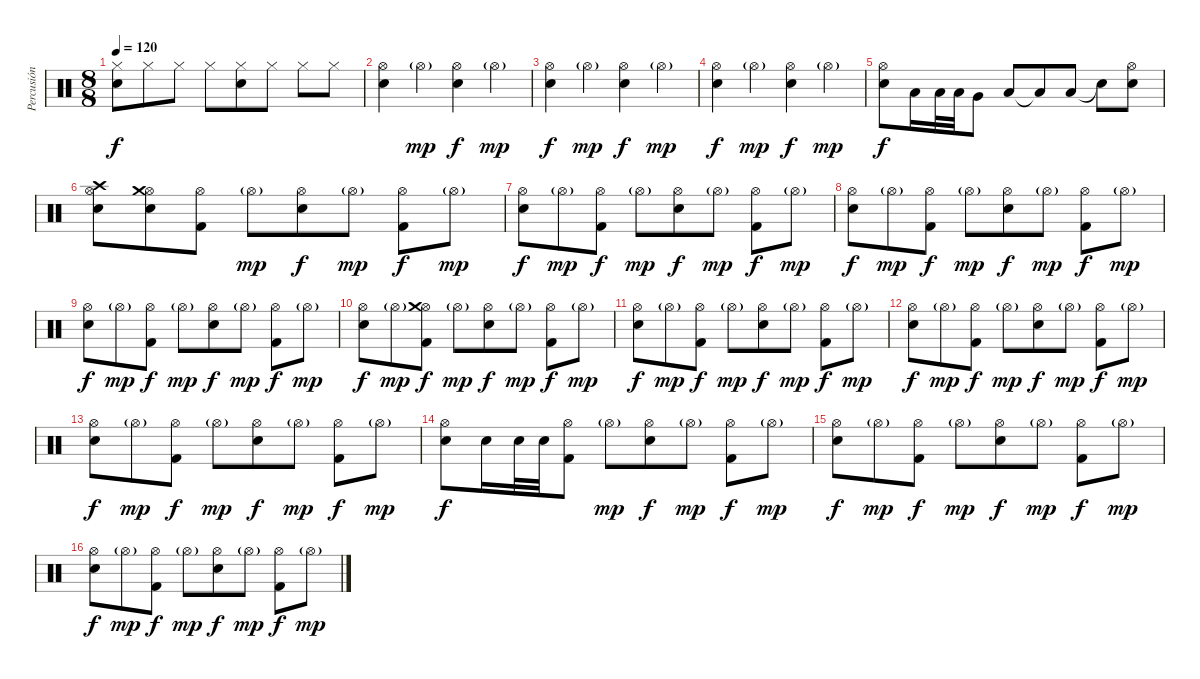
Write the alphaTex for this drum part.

\track ("Percusión" "Percusión") {instrument percussion}
\staff {score}
\articulation defaults
\ts (8 8)
\tempo 120
\clef neutral
\ks c
("Hi-Hat (closed)" "Snare (hit) 2").8{dy f} "Hi-Hat (closed)".8 "Hi-Hat (closed)".8 "Hi-Hat (closed)".8 ("Hi-Hat (closed)" "Snare (hit) 2").8 "Hi-Hat (closed)".8 "Hi-Hat (closed)".8 "Hi-Hat (closed)".8 |
("Hi-Hat (open)" "Snare (hit) 2").4 "Hi-Hat (open)"{g}.4{dy mp} ("Hi-Hat (open)" "Snare (hit) 2").4{dy f} "Hi-Hat (open)"{g}.4{dy mp} |
("Hi-Hat (open)" "Snare (hit) 2").4{dy f} "Hi-Hat (open)"{g}.4{dy mp} ("Hi-Hat (open)" "Snare (hit) 2").4{dy f} "Hi-Hat (open)"{g}.4{dy mp} |
("Hi-Hat (open)" "Snare (hit) 2").4{dy f} "Hi-Hat (open)"{g}.4{dy mp} ("Hi-Hat (open)" "Snare (hit) 2").4{dy f} "Hi-Hat (open)"{g}.4{dy mp} |
("Hi-Hat (open)" "Snare (hit) 2").8{dy f} "Low Tom (hit)".16 "Low Tom (hit)".32 "Low Tom (hit)".32 "Very Low Tom (hit)".8 "Low Tom (hit)".8 "Low Tom (hit)"{t}.8 "Low Tom (hit)".8 "Snare (hit)"{t}.8 ("Hi-Hat (open)" "Snare (hit) 2").8 |
("Hi-Hat (open)" "Crash high (hit)" "Snare (hit) 2").8 ("Hi-Hat (open)" "Crash medium (hit)" "Snare (hit) 2").8 ("Hi-Hat (open)" "Kick (hit) 2").8 "Hi-Hat (open)"{g}.8{dy mp} ("Hi-Hat (open)" "Snare (hit) 2").8{dy f} "Hi-Hat (open)"{g}.8{dy mp} ("Hi-Hat (open)" "Kick (hit) 2").8{dy f} "Hi-Hat (open)"{g}.8{dy mp} |
("Hi-Hat (open)" "Snare (hit) 2").8{dy f} "Hi-Hat (open)"{g}.8{dy mp} ("Hi-Hat (open)" "Kick (hit) 2").8{dy f} "Hi-Hat (open)"{g}.8{dy mp} ("Hi-Hat (open)" "Snare (hit) 2").8{dy f} "Hi-Hat (open)"{g}.8{dy mp} ("Hi-Hat (open)" "Kick (hit) 2").8{dy f} "Hi-Hat (open)"{g}.8{dy mp} |
("Hi-Hat (open)" "Snare (hit) 2").8{dy f} "Hi-Hat (open)"{g}.8{dy mp} ("Hi-Hat (open)" "Kick (hit) 2").8{dy f} "Hi-Hat (open)"{g}.8{dy mp} ("Hi-Hat (open)" "Snare (hit) 2").8{dy f} "Hi-Hat (open)"{g}.8{dy mp} ("Hi-Hat (open)" "Kick (hit) 2").8{dy f} "Hi-Hat (open)"{g}.8{dy mp} |
("Hi-Hat (open)" "Snare (hit) 2").8{dy f} "Hi-Hat (open)"{g}.8{dy mp} ("Hi-Hat (open)" "Kick (hit) 2").8{dy f} "Hi-Hat (open)"{g}.8{dy mp} ("Hi-Hat (open)" "Snare (hit) 2").8{dy f} "Hi-Hat (open)"{g}.8{dy mp} ("Hi-Hat (open)" "Kick (hit) 2").8{dy f} "Hi-Hat (open)"{g}.8{dy mp} |
("Hi-Hat (open)" "Snare (hit) 2").8{dy f} "Hi-Hat (open)"{g}.8{dy mp} ("Hi-Hat (open)" "Crash medium (hit)" "Kick (hit) 2").8{dy f} "Hi-Hat (open)"{g}.8{dy mp} ("Hi-Hat (open)" "Snare (hit) 2").8{dy f} "Hi-Hat (open)"{g}.8{dy mp} ("Hi-Hat (open)" "Kick (hit) 2").8{dy f} "Hi-Hat (open)"{g}.8{dy mp} |
("Hi-Hat (open)" "Snare (hit) 2").8{dy f} "Hi-Hat (open)"{g}.8{dy mp} ("Hi-Hat (open)" "Kick (hit) 2").8{dy f} "Hi-Hat (open)"{g}.8{dy mp} ("Hi-Hat (open)" "Snare (hit) 2").8{dy f} "Hi-Hat (open)"{g}.8{dy mp} ("Hi-Hat (open)" "Kick (hit) 2").8{dy f} "Hi-Hat (open)"{g}.8{dy mp} |
("Hi-Hat (open)" "Snare (hit) 2").8{dy f} "Hi-Hat (open)"{g}.8{dy mp} ("Hi-Hat (open)" "Kick (hit) 2").8{dy f} "Hi-Hat (open)"{g}.8{dy mp} ("Hi-Hat (open)" "Snare (hit) 2").8{dy f} "Hi-Hat (open)"{g}.8{dy mp} ("Hi-Hat (open)" "Kick (hit) 2").8{dy f} "Hi-Hat (open)"{g}.8{dy mp} |
("Hi-Hat (open)" "Snare (hit) 2").8{dy f} "Hi-Hat (open)"{g}.8{dy mp} ("Hi-Hat (open)" "Kick (hit) 2").8{dy f} "Hi-Hat (open)"{g}.8{dy mp} ("Hi-Hat (open)" "Snare (hit) 2").8{dy f} "Hi-Hat (open)"{g}.8{dy mp} ("Hi-Hat (open)" "Kick (hit) 2").8{dy f} "Hi-Hat (open)"{g}.8{dy mp} |
("Hi-Hat (open)" "Snare (hit) 2").8{dy f} "Snare (hit) 2".16 "Snare (hit) 2".32 "Snare (hit) 2".32 ("Hi-Hat (open)" "Kick (hit) 2").8 "Hi-Hat (open)"{g}.8{dy mp} ("Hi-Hat (open)" "Snare (hit) 2").8{dy f} "Hi-Hat (open)"{g}.8{dy mp} ("Hi-Hat (open)" "Kick (hit) 2").8{dy f} "Hi-Hat (open)"{g}.8{dy mp} |
("Hi-Hat (open)" "Snare (hit) 2").8{dy f} "Hi-Hat (open)"{g}.8{dy mp} ("Hi-Hat (open)" "Kick (hit) 2").8{dy f} "Hi-Hat (open)"{g}.8{dy mp} ("Hi-Hat (open)" "Snare (hit) 2").8{dy f} "Hi-Hat (open)"{g}.8{dy mp} ("Hi-Hat (open)" "Kick (hit) 2").8{dy f} "Hi-Hat (open)"{g}.8{dy mp} |
("Hi-Hat (open)" "Snare (hit) 2").8{dy f} "Hi-Hat (open)"{g}.8{dy mp} ("Hi-Hat (open)" "Kick (hit) 2").8{dy f} "Hi-Hat (open)"{g}.8{dy mp} ("Hi-Hat (open)" "Snare (hit) 2").8{dy f} "Hi-Hat (open)"{g}.8{dy mp} ("Hi-Hat (open)" "Kick (hit) 2").8{dy f} "Hi-Hat (open)"{g}.8{dy mp}
